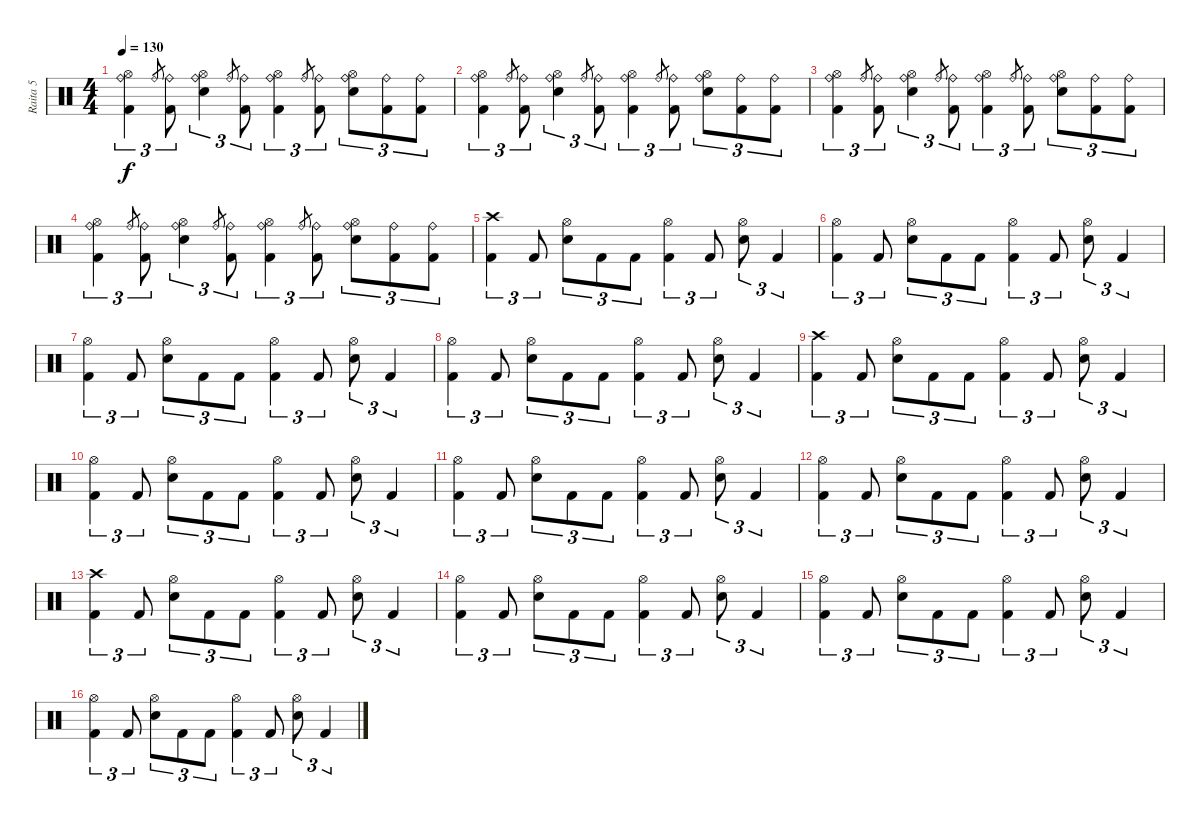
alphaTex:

\track ("Raita 5" "Raita 5") {instrument percussion}
\staff {score}
\articulation defaults
\ts (4 4)
\tempo 130
\clef neutral
\ks c
("Ride (bell)" "Hi-Hat (open)" "Kick (hit) 2").4{tu (3 2) dy f} "Ride (bell)".8{gr} ("Ride (bell)" "Kick (hit) 2").8{tu (3 2)} ("Ride (bell)" "Hi-Hat (open)" "Snare (hit) 2").4{tu (3 2)} "Ride (bell)".8{gr} ("Ride (bell)" "Kick (hit) 2").8{tu (3 2)} ("Ride (bell)" "Hi-Hat (open)" "Kick (hit) 2").4{tu (3 2)} "Ride (bell)".8{gr} ("Ride (bell)" "Kick (hit) 2").8{tu (3 2)} ("Ride (bell)" "Hi-Hat (open)" "Snare (hit) 2").8{tu (3 2)} ("Ride (bell)" "Kick (hit) 2").8{tu (3 2)} ("Ride (bell)" "Kick (hit) 2").8{tu (3 2)} |
("Ride (bell)" "Hi-Hat (open)" "Kick (hit) 2").4{tu (3 2)} "Ride (bell)".8{gr} ("Ride (bell)" "Kick (hit) 2").8{tu (3 2)} ("Ride (bell)" "Hi-Hat (open)" "Snare (hit) 2").4{tu (3 2)} "Ride (bell)".8{gr} ("Ride (bell)" "Kick (hit) 2").8{tu (3 2)} ("Ride (bell)" "Hi-Hat (open)" "Kick (hit) 2").4{tu (3 2)} "Ride (bell)".8{gr} ("Ride (bell)" "Kick (hit) 2").8{tu (3 2)} ("Ride (bell)" "Hi-Hat (open)" "Snare (hit) 2").8{tu (3 2)} ("Ride (bell)" "Kick (hit) 2").8{tu (3 2)} ("Ride (bell)" "Kick (hit) 2").8{tu (3 2)} |
("Ride (bell)" "Hi-Hat (open)" "Kick (hit) 2").4{tu (3 2)} "Ride (bell)".8{gr} ("Ride (bell)" "Kick (hit) 2").8{tu (3 2)} ("Ride (bell)" "Hi-Hat (open)" "Snare (hit) 2").4{tu (3 2)} "Ride (bell)".8{gr} ("Ride (bell)" "Kick (hit) 2").8{tu (3 2)} ("Ride (bell)" "Hi-Hat (open)" "Kick (hit) 2").4{tu (3 2)} "Ride (bell)".8{gr} ("Ride (bell)" "Kick (hit) 2").8{tu (3 2)} ("Ride (bell)" "Hi-Hat (open)" "Snare (hit) 2").8{tu (3 2)} ("Ride (bell)" "Kick (hit) 2").8{tu (3 2)} ("Ride (bell)" "Kick (hit) 2").8{tu (3 2)} |
("Ride (bell)" "Hi-Hat (open)" "Kick (hit) 2").4{tu (3 2)} "Ride (bell)".8{gr} ("Ride (bell)" "Kick (hit) 2").8{tu (3 2)} ("Ride (bell)" "Hi-Hat (open)" "Snare (hit) 2").4{tu (3 2)} "Ride (bell)".8{gr} ("Ride (bell)" "Kick (hit) 2").8{tu (3 2)} ("Ride (bell)" "Hi-Hat (open)" "Kick (hit) 2").4{tu (3 2)} "Ride (bell)".8{gr} ("Ride (bell)" "Kick (hit) 2").8{tu (3 2)} ("Ride (bell)" "Hi-Hat (open)" "Snare (hit) 2").8{tu (3 2)} ("Ride (bell)" "Kick (hit) 2").8{tu (3 2)} ("Ride (bell)" "Kick (hit) 2").8{tu (3 2)} |
("Crash high (hit)" "Kick (hit) 2").4{tu (3 2)} "Kick (hit) 2".8{tu (3 2)} ("Hi-Hat (open)" "Snare (hit) 2").8{tu (3 2)} "Kick (hit) 2".8{tu (3 2)} "Kick (hit) 2".8{tu (3 2)} ("Hi-Hat (open)" "Kick (hit) 2").4{tu (3 2)} "Kick (hit) 2".8{tu (3 2)} ("Hi-Hat (open)" "Snare (hit) 2").8{tu (3 2)} "Kick (hit) 2".4{tu (3 2)} |
("Hi-Hat (open)" "Kick (hit) 2").4{tu (3 2)} "Kick (hit) 2".8{tu (3 2)} ("Hi-Hat (open)" "Snare (hit) 2").8{tu (3 2)} "Kick (hit) 2".8{tu (3 2)} "Kick (hit) 2".8{tu (3 2)} ("Hi-Hat (open)" "Kick (hit) 2").4{tu (3 2)} "Kick (hit) 2".8{tu (3 2)} ("Hi-Hat (open)" "Snare (hit) 2").8{tu (3 2)} "Kick (hit) 2".4{tu (3 2)} |
("Hi-Hat (open)" "Kick (hit) 2").4{tu (3 2)} "Kick (hit) 2".8{tu (3 2)} ("Hi-Hat (open)" "Snare (hit) 2").8{tu (3 2)} "Kick (hit) 2".8{tu (3 2)} "Kick (hit) 2".8{tu (3 2)} ("Hi-Hat (open)" "Kick (hit) 2").4{tu (3 2)} "Kick (hit) 2".8{tu (3 2)} ("Hi-Hat (open)" "Snare (hit) 2").8{tu (3 2)} "Kick (hit) 2".4{tu (3 2)} |
("Hi-Hat (open)" "Kick (hit) 2").4{tu (3 2)} "Kick (hit) 2".8{tu (3 2)} ("Hi-Hat (open)" "Snare (hit) 2").8{tu (3 2)} "Kick (hit) 2".8{tu (3 2)} "Kick (hit) 2".8{tu (3 2)} ("Hi-Hat (open)" "Kick (hit) 2").4{tu (3 2)} "Kick (hit) 2".8{tu (3 2)} ("Hi-Hat (open)" "Snare (hit) 2").8{tu (3 2)} "Kick (hit) 2".4{tu (3 2)} |
("Crash high (hit)" "Kick (hit) 2").4{tu (3 2)} "Kick (hit) 2".8{tu (3 2)} ("Hi-Hat (open)" "Snare (hit) 2").8{tu (3 2)} "Kick (hit) 2".8{tu (3 2)} "Kick (hit) 2".8{tu (3 2)} ("Hi-Hat (open)" "Kick (hit) 2").4{tu (3 2)} "Kick (hit) 2".8{tu (3 2)} ("Hi-Hat (open)" "Snare (hit) 2").8{tu (3 2)} "Kick (hit) 2".4{tu (3 2)} |
("Hi-Hat (open)" "Kick (hit) 2").4{tu (3 2)} "Kick (hit) 2".8{tu (3 2)} ("Hi-Hat (open)" "Snare (hit) 2").8{tu (3 2)} "Kick (hit) 2".8{tu (3 2)} "Kick (hit) 2".8{tu (3 2)} ("Hi-Hat (open)" "Kick (hit) 2").4{tu (3 2)} "Kick (hit) 2".8{tu (3 2)} ("Hi-Hat (open)" "Snare (hit) 2").8{tu (3 2)} "Kick (hit) 2".4{tu (3 2)} |
("Hi-Hat (open)" "Kick (hit) 2").4{tu (3 2)} "Kick (hit) 2".8{tu (3 2)} ("Hi-Hat (open)" "Snare (hit) 2").8{tu (3 2)} "Kick (hit) 2".8{tu (3 2)} "Kick (hit) 2".8{tu (3 2)} ("Hi-Hat (open)" "Kick (hit) 2").4{tu (3 2)} "Kick (hit) 2".8{tu (3 2)} ("Hi-Hat (open)" "Snare (hit) 2").8{tu (3 2)} "Kick (hit) 2".4{tu (3 2)} |
("Hi-Hat (open)" "Kick (hit) 2").4{tu (3 2)} "Kick (hit) 2".8{tu (3 2)} ("Hi-Hat (open)" "Snare (hit) 2").8{tu (3 2)} "Kick (hit) 2".8{tu (3 2)} "Kick (hit) 2".8{tu (3 2)} ("Hi-Hat (open)" "Kick (hit) 2").4{tu (3 2)} "Kick (hit) 2".8{tu (3 2)} ("Hi-Hat (open)" "Snare (hit) 2").8{tu (3 2)} "Kick (hit) 2".4{tu (3 2)} |
("Crash high (hit)" "Kick (hit) 2").4{tu (3 2)} "Kick (hit) 2".8{tu (3 2)} ("Hi-Hat (open)" "Snare (hit) 2").8{tu (3 2)} "Kick (hit) 2".8{tu (3 2)} "Kick (hit) 2".8{tu (3 2)} ("Hi-Hat (open)" "Kick (hit) 2").4{tu (3 2)} "Kick (hit) 2".8{tu (3 2)} ("Hi-Hat (open)" "Snare (hit) 2").8{tu (3 2)} "Kick (hit) 2".4{tu (3 2)} |
("Hi-Hat (open)" "Kick (hit) 2").4{tu (3 2)} "Kick (hit) 2".8{tu (3 2)} ("Hi-Hat (open)" "Snare (hit) 2").8{tu (3 2)} "Kick (hit) 2".8{tu (3 2)} "Kick (hit) 2".8{tu (3 2)} ("Hi-Hat (open)" "Kick (hit) 2").4{tu (3 2)} "Kick (hit) 2".8{tu (3 2)} ("Hi-Hat (open)" "Snare (hit) 2").8{tu (3 2)} "Kick (hit) 2".4{tu (3 2)} |
("Hi-Hat (open)" "Kick (hit) 2").4{tu (3 2)} "Kick (hit) 2".8{tu (3 2)} ("Hi-Hat (open)" "Snare (hit) 2").8{tu (3 2)} "Kick (hit) 2".8{tu (3 2)} "Kick (hit) 2".8{tu (3 2)} ("Hi-Hat (open)" "Kick (hit) 2").4{tu (3 2)} "Kick (hit) 2".8{tu (3 2)} ("Hi-Hat (open)" "Snare (hit) 2").8{tu (3 2)} "Kick (hit) 2".4{tu (3 2)} |
("Hi-Hat (open)" "Kick (hit) 2").4{tu (3 2)} "Kick (hit) 2".8{tu (3 2)} ("Hi-Hat (open)" "Snare (hit) 2").8{tu (3 2)} "Kick (hit) 2".8{tu (3 2)} "Kick (hit) 2".8{tu (3 2)} ("Hi-Hat (open)" "Kick (hit) 2").4{tu (3 2)} "Kick (hit) 2".8{tu (3 2)} ("Hi-Hat (open)" "Snare (hit) 2").8{tu (3 2)} "Kick (hit) 2".4{tu (3 2)}
